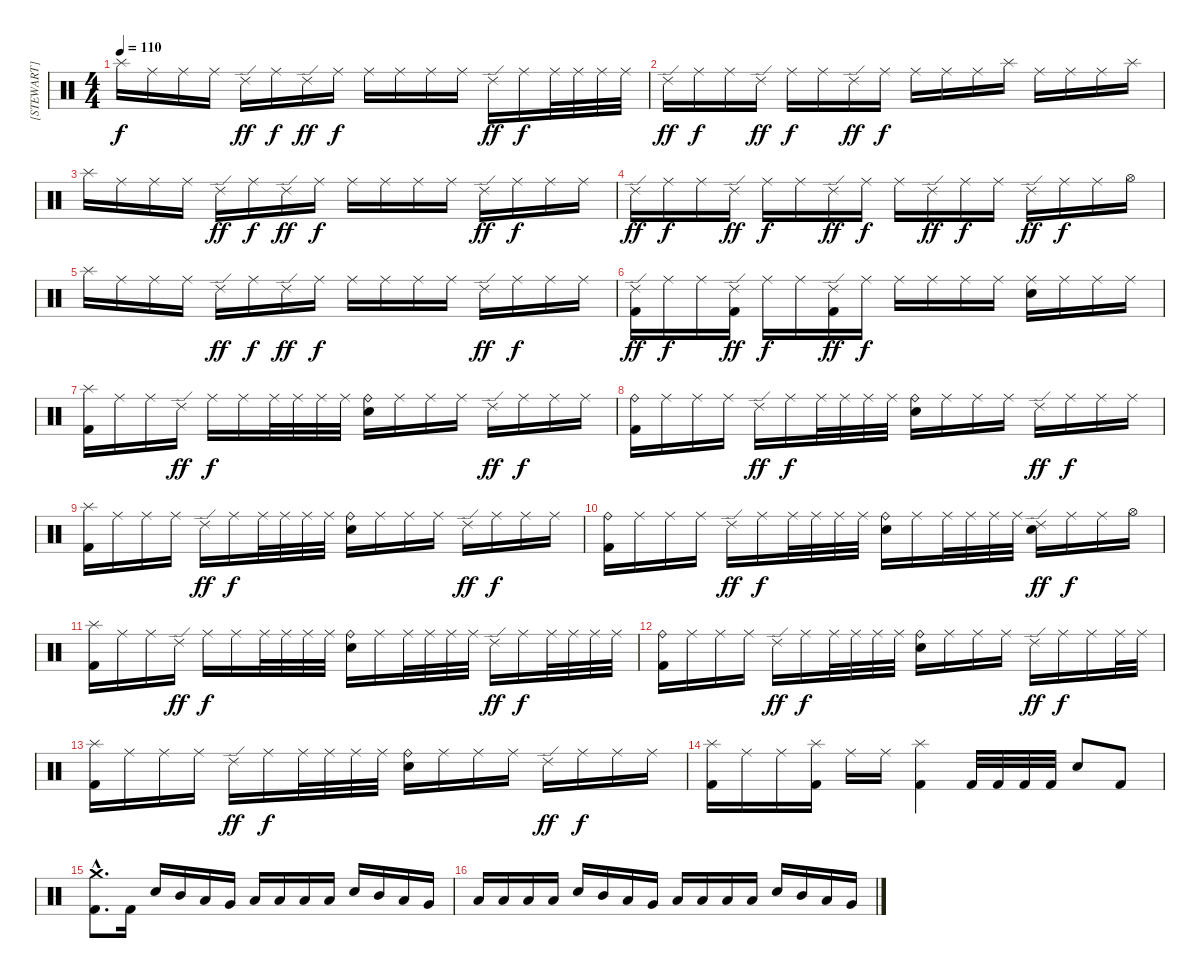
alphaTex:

\track ("[STEWART]" "[STEWART]") {instrument percussion}
\staff {score}
\articulation defaults
\ts (4 4)
\tempo 110
\clef neutral
\ks c "Splash (hit)".16{dy f} "Ride (middle)".16 "Ride (middle)".16 "Ride (middle)".16 "Ride (edge) 2".16{dy ff} "Ride (middle)".16{dy f} "Ride (edge) 2".16{dy ff} "Ride (middle)".16{dy f} "Ride (middle)".16 "Ride (middle)".16 "Ride (middle)".16 "Ride (middle)".16 "Ride (edge) 2".16{dy ff} "Ride (middle)".16{dy f} "Ride (middle)".32 "Ride (middle)".32 "Ride (middle)".32 "Ride (middle)".32
|
"Ride (edge) 2".16{dy ff} "Ride (middle)".16{dy f} "Ride (middle)".16 "Ride (edge) 2".16{dy ff} "Ride (middle)".16{dy f} "Ride (middle)".16 "Ride (edge) 2".16{dy ff} "Ride (middle)".16{dy f} "Ride (middle)".16 "Ride (middle)".16 "Ride (middle)".16 "Splash (hit)".16 "Ride (middle)".16 "Ride (middle)".16 "Ride (middle)".16 "Splash (hit)".16 |
"Splash (hit)".16 "Ride (middle)".16 "Ride (middle)".16 "Ride (middle)".16 "Ride (edge) 2".16{dy ff} "Ride (middle)".16{dy f} "Ride (edge) 2".16{dy ff} "Ride (middle)".16{dy f} "Ride (middle)".16 "Ride (middle)".16 "Ride (middle)".16 "Ride (middle)".16 "Ride (edge) 2".16{dy ff} "Ride (middle)".16{dy f} "Ride (middle)".16 "Ride (middle)".16 |
"Ride (edge) 2".16{dy ff} "Ride (middle)".16{dy f} "Ride (middle)".16 "Ride (edge) 2".16{dy ff} "Ride (middle)".16{dy f} "Ride (middle)".16 "Ride (edge) 2".16{dy ff} "Ride (middle)".16{dy f} "Ride (middle)".16 "Ride (edge) 2".16{dy ff} "Ride (middle)".16{dy f} "Ride (middle)".16 "Ride (edge) 2".16{dy ff} "Ride (middle)".16{dy f} "Ride (middle)".16 "Hi-Hat (open)".16 |
"Splash (hit)".16 "Ride (middle)".16 "Ride (middle)".16 "Ride (middle)".16 "Ride (edge) 2".16{dy ff} "Ride (middle)".16{dy f} "Ride (edge) 2".16{dy ff} "Ride (middle)".16{dy f} "Ride (middle)".16 "Ride (middle)".16 "Ride (middle)".16 "Ride (middle)".16 "Ride (edge) 2".16{dy ff} "Ride (middle)".16{dy f} "Ride (middle)".16 "Ride (middle)".16 |
("Ride (edge) 2" "Kick (hit) 2").16{dy ff} "Ride (middle)".16{dy f} "Ride (middle)".16 ("Ride (edge) 2" "Kick (hit) 2").16{dy ff} "Ride (middle)".16{dy f} "Ride (middle)".16 ("Ride (edge) 2" "Kick (hit) 2").16{dy ff} "Ride (middle)".16{dy f} "Ride (middle)".16 "Ride (middle)".16 "Ride (middle)".16 "Ride (middle)".16 ("Ride (middle)" "Electric Snare (hit)").16 "Ride (middle)".16 "Ride (middle)".16 "Ride (middle)".16 |
("Splash (hit)" "Kick (hit) 2").16 "Ride (middle)".16 "Ride (middle)".16 "Ride (edge) 2".16{dy ff} "Ride (middle)".16{dy f} "Ride (middle)".16 "Ride (middle)".32 "Ride (middle)".32 "Ride (middle)".32 "Ride (middle)".32 ("Ride (bell)" "Electric Snare (hit)").16 "Ride (middle)".16 "Ride (middle)".16 "Ride (middle)".16 "Ride (edge) 2".16{dy ff} "Ride (middle)".16{dy f} "Ride (middle)".16 "Ride (middle)".16 |
("Ride (bell)" "Kick (hit) 2").16 "Ride (middle)".16 "Ride (middle)".16 "Ride (middle)".16 "Ride (edge) 2".16{dy ff} "Ride (middle)".16{dy f} "Ride (middle)".32 "Ride (middle)".32 "Ride (middle)".32 "Ride (middle)".32 ("Ride (bell)" "Electric Snare (hit)").16 "Ride (middle)".16 "Ride (middle)".16 "Ride (middle)".16 "Ride (edge) 2".16{dy ff} "Ride (middle)".16{dy f} "Ride (middle)".16 "Ride (middle)".16 |
("Splash (hit)" "Kick (hit) 2").16 "Ride (middle)".16 "Ride (middle)".16 "Ride (middle)".16 "Ride (edge) 2".16{dy ff} "Ride (middle)".16{dy f} "Ride (middle)".32 "Ride (middle)".32 "Ride (middle)".32 "Ride (middle)".32 ("Ride (bell)" "Electric Snare (hit)").16 "Ride (middle)".16 "Ride (middle)".16 "Ride (middle)".16 "Ride (edge) 2".16{dy ff} "Ride (middle)".16{dy f} "Ride (middle)".16 "Ride (middle)".16 |
("Ride (bell)" "Kick (hit) 2").16 "Ride (middle)".16 "Ride (middle)".16 "Ride (middle)".16 "Ride (edge) 2".16{dy ff} "Ride (middle)".16{dy f} "Ride (middle)".32 "Ride (middle)".32 "Ride (middle)".32 "Ride (middle)".32 ("Ride (bell)" "Electric Snare (hit)").16 "Ride (middle)".16 "Ride (middle)".32 "Ride (middle)".32 "Ride (middle)".32 "Ride (middle)".32 ("Ride (edge) 2" "Electric Snare (hit)").16{dy ff} "Ride (middle)".16{dy f} "Ride (middle)".16 "Hi-Hat (open)".16 |
("Splash (hit)" "Kick (hit) 2").16 "Ride (middle)".16 "Ride (middle)".16 "Ride (edge) 2".16{dy ff} "Ride (middle)".16{dy f} "Ride (middle)".16 "Ride (middle)".32 "Ride (middle)".32 "Ride (middle)".32 "Ride (middle)".32 ("Ride (bell)" "Electric Snare (hit)").16 "Ride (middle)".16 "Ride (middle)".32 "Ride (middle)".32 "Ride (middle)".32 "Ride (middle)".32 "Ride (edge) 2".16{dy ff} "Ride (middle)".16{dy f} "Ride (middle)".32 "Ride (middle)".32 "Ride (middle)".32 "Ride (middle)".32 |
("Ride (bell)" "Kick (hit) 2").16 "Ride (middle)".16 "Ride (middle)".16 "Ride (middle)".16 "Ride (edge) 2".16{dy ff} "Ride (middle)".16{dy f} "Ride (middle)".32 "Ride (middle)".32 "Ride (middle)".32 "Ride (middle)".32 ("Ride (bell)" "Electric Snare (hit)").16 "Ride (middle)".16 "Ride (middle)".16 "Ride (middle)".16 "Ride (edge) 2".16{dy ff} "Ride (middle)".16{dy f} "Ride (middle)".16 "Ride (middle)".32 "Ride (middle)".32 |
("Splash (hit)" "Kick (hit) 2").16 "Ride (middle)".16 "Ride (middle)".16 "Ride (middle)".16 "Ride (edge) 2".16{dy ff} "Ride (middle)".16{dy f} "Ride (middle)".32 "Ride (middle)".32 "Ride (middle)".32 "Ride (middle)".32 ("Ride (bell)" "Electric Snare (hit)").16 "Ride (middle)".16 "Ride (middle)".16 "Ride (middle)".16 "Ride (edge) 2".16{dy ff} "Ride (middle)".16{dy f} "Ride (middle)".16 "Ride (middle)".16 |
("Splash (hit)" "Kick (hit) 2").16 "Ride (middle)".16 "Ride (middle)".16 ("Splash (hit)" "Kick (hit) 2").16 "Ride (middle)".16 "Ride (middle)".16 ("Splash (hit)" "Kick (hit) 2").4 "Kick (hit) 2".32 "Kick (hit) 2".32 "Kick (hit) 2".32 "Kick (hit) 2".32 "Electric Snare (hit)".8 "Kick (hit) 2".8 |
("Crash medium (hit)"{hac} "Kick (hit) 2"{hac}).8{d} "Kick (hit) 2".16 "Electric Snare (hit)".16 "Mid Tom (hit)".16 "Low Tom (hit)".16 "Very Low Tom (hit)".16 "Low Floor Tom (hit)".16 "Low Floor Tom (hit)".16 "Low Floor Tom (hit)".16 "Low Floor Tom (hit)".16 "Electric Snare (hit)".16 "Mid Tom (hit)".16 "Low Tom (hit)".16 "Very Low Tom (hit)".16 |
"Low Floor Tom (hit)".16 "Low Floor Tom (hit)".16 "Low Floor Tom (hit)".16 "Low Floor Tom (hit)".16 "Electric Snare (hit)".16 "Mid Tom (hit)".16 "Low Tom (hit)".16 "Very Low Tom (hit)".16 "Low Floor Tom (hit)".16 "Low Floor Tom (hit)".16 "Low Floor Tom (hit)".16 "Low Floor Tom (hit)".16 "Electric Snare (hit)".16 "Mid Tom (hit)".16 "Low Tom (hit)".16 "Very Low Tom (hit)".16
